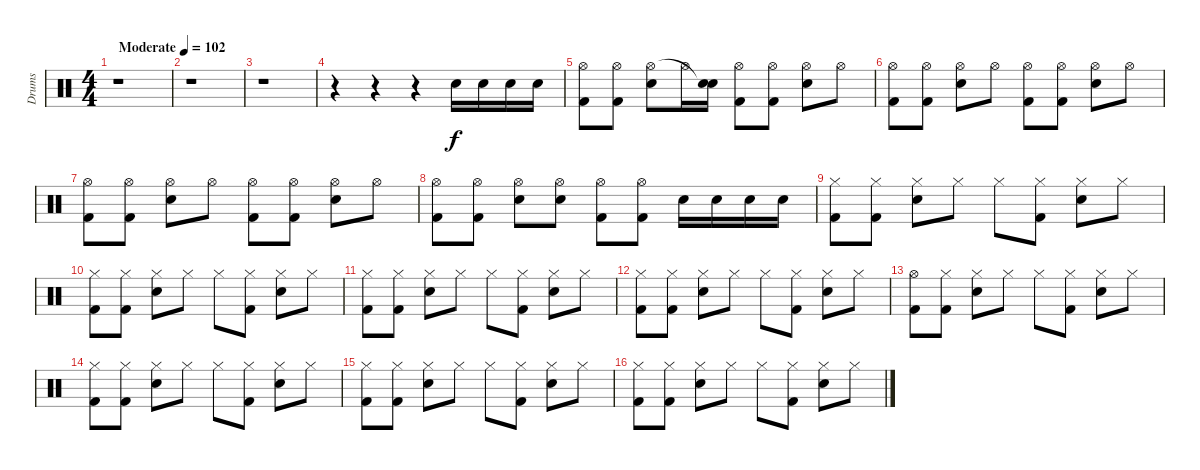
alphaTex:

\track ("Drums" "Drums") {instrument percussion}
\staff {score}
\articulation defaults
\ts (4 4)
\tempo (102 "Moderate")
\clef neutral
\ks c
r.1{dy f} |
r.1 |
r.1 |
r.4 r.4 r.4 "Electric Snare (hit)".16 "Electric Snare (hit)".16 "Electric Snare (hit)".16 "Electric Snare (hit)".16 |
("Kick (hit) 2" "Hi-Hat (open)").8 ("Kick (hit) 2" "Hi-Hat (open)").8 ("Electric Snare (hit)" "Hi-Hat (open)").8 "Hi-Hat (open)".16 ("Electric Snare (hit)" "Snare (hit)"{t}).16 ("Kick (hit) 2" "Hi-Hat (open)").8 ("Kick (hit) 2" "Hi-Hat (open)").8 ("Electric Snare (hit)" "Hi-Hat (open)").8 "Hi-Hat (open)".8 |
("Kick (hit) 2" "Hi-Hat (open)").8 ("Kick (hit) 2" "Hi-Hat (open)").8 ("Electric Snare (hit)" "Hi-Hat (open)").8 "Hi-Hat (open)".8 ("Kick (hit) 2" "Hi-Hat (open)").8 ("Kick (hit) 2" "Hi-Hat (open)").8 ("Electric Snare (hit)" "Hi-Hat (open)").8 "Hi-Hat (open)".8 |
("Kick (hit) 2" "Hi-Hat (open)").8 ("Kick (hit) 2" "Hi-Hat (open)").8 ("Electric Snare (hit)" "Hi-Hat (open)").8 "Hi-Hat (open)".8 ("Kick (hit) 2" "Hi-Hat (open)").8 ("Kick (hit) 2" "Hi-Hat (open)").8 ("Electric Snare (hit)" "Hi-Hat (open)").8 "Hi-Hat (open)".8 |
("Kick (hit) 2" "Hi-Hat (open)").8 ("Kick (hit) 2" "Hi-Hat (open)").8 ("Electric Snare (hit)" "Hi-Hat (open)").8 ("Electric Snare (hit)" "Hi-Hat (open)").8 ("Kick (hit) 2" "Hi-Hat (open)").8 ("Kick (hit) 2" "Hi-Hat (open)").8 "Electric Snare (hit)".16 "Electric Snare (hit)".16 "Electric Snare (hit)".16 "Electric Snare (hit)".16 |
("Kick (hit) 2" "Hi-Hat (closed)").8 ("Kick (hit) 2" "Hi-Hat (closed)").8 ("Electric Snare (hit)" "Hi-Hat (closed)").8 "Hi-Hat (closed)".8 "Hi-Hat (closed)".8 ("Kick (hit) 2" "Hi-Hat (closed)").8 ("Electric Snare (hit)" "Hi-Hat (closed)").8 "Hi-Hat (closed)".8 |
("Kick (hit) 2" "Hi-Hat (closed)").8 ("Kick (hit) 2" "Hi-Hat (closed)").8 ("Electric Snare (hit)" "Hi-Hat (closed)").8 "Hi-Hat (closed)".8 "Hi-Hat (closed)".8 ("Kick (hit) 2" "Hi-Hat (closed)").8 ("Electric Snare (hit)" "Hi-Hat (closed)").8 "Hi-Hat (closed)".8 |
("Kick (hit) 2" "Hi-Hat (closed)").8 ("Kick (hit) 2" "Hi-Hat (closed)").8 ("Electric Snare (hit)" "Hi-Hat (closed)").8 "Hi-Hat (closed)".8 "Hi-Hat (closed)".8 ("Kick (hit) 2" "Hi-Hat (closed)").8 ("Electric Snare (hit)" "Hi-Hat (closed)").8 "Hi-Hat (closed)".8 |
("Kick (hit) 2" "Hi-Hat (closed)").8 ("Kick (hit) 2" "Hi-Hat (closed)").8 ("Electric Snare (hit)" "Hi-Hat (closed)").8 "Hi-Hat (closed)".8 "Hi-Hat (closed)".8 ("Kick (hit) 2" "Hi-Hat (closed)").8 ("Electric Snare (hit)" "Hi-Hat (closed)").8 "Hi-Hat (closed)".8 |
("Kick (hit) 2" "Hi-Hat (open)").8 ("Kick (hit) 2" "Hi-Hat (closed)").8 ("Electric Snare (hit)" "Hi-Hat (closed)").8 "Hi-Hat (closed)".8 "Hi-Hat (closed)".8 ("Kick (hit) 2" "Hi-Hat (closed)").8 ("Electric Snare (hit)" "Hi-Hat (closed)").8 "Hi-Hat (closed)".8 |
("Kick (hit) 2" "Hi-Hat (closed)").8 ("Kick (hit) 2" "Hi-Hat (closed)").8 ("Electric Snare (hit)" "Hi-Hat (closed)").8 "Hi-Hat (closed)".8 "Hi-Hat (closed)".8 ("Kick (hit) 2" "Hi-Hat (closed)").8 ("Electric Snare (hit)" "Hi-Hat (closed)").8 "Hi-Hat (closed)".8 |
("Kick (hit) 2" "Hi-Hat (closed)").8 ("Kick (hit) 2" "Hi-Hat (closed)").8 ("Electric Snare (hit)" "Hi-Hat (closed)").8 "Hi-Hat (closed)".8 "Hi-Hat (closed)".8 ("Kick (hit) 2" "Hi-Hat (closed)").8 ("Electric Snare (hit)" "Hi-Hat (closed)").8 "Hi-Hat (closed)".8 |
("Kick (hit) 2" "Hi-Hat (closed)").8 ("Kick (hit) 2" "Hi-Hat (closed)").8 ("Electric Snare (hit)" "Hi-Hat (closed)").8 "Hi-Hat (closed)".8 "Hi-Hat (closed)".8 ("Kick (hit) 2" "Hi-Hat (closed)").8 ("Electric Snare (hit)" "Hi-Hat (closed)").8 "Hi-Hat (closed)".8
